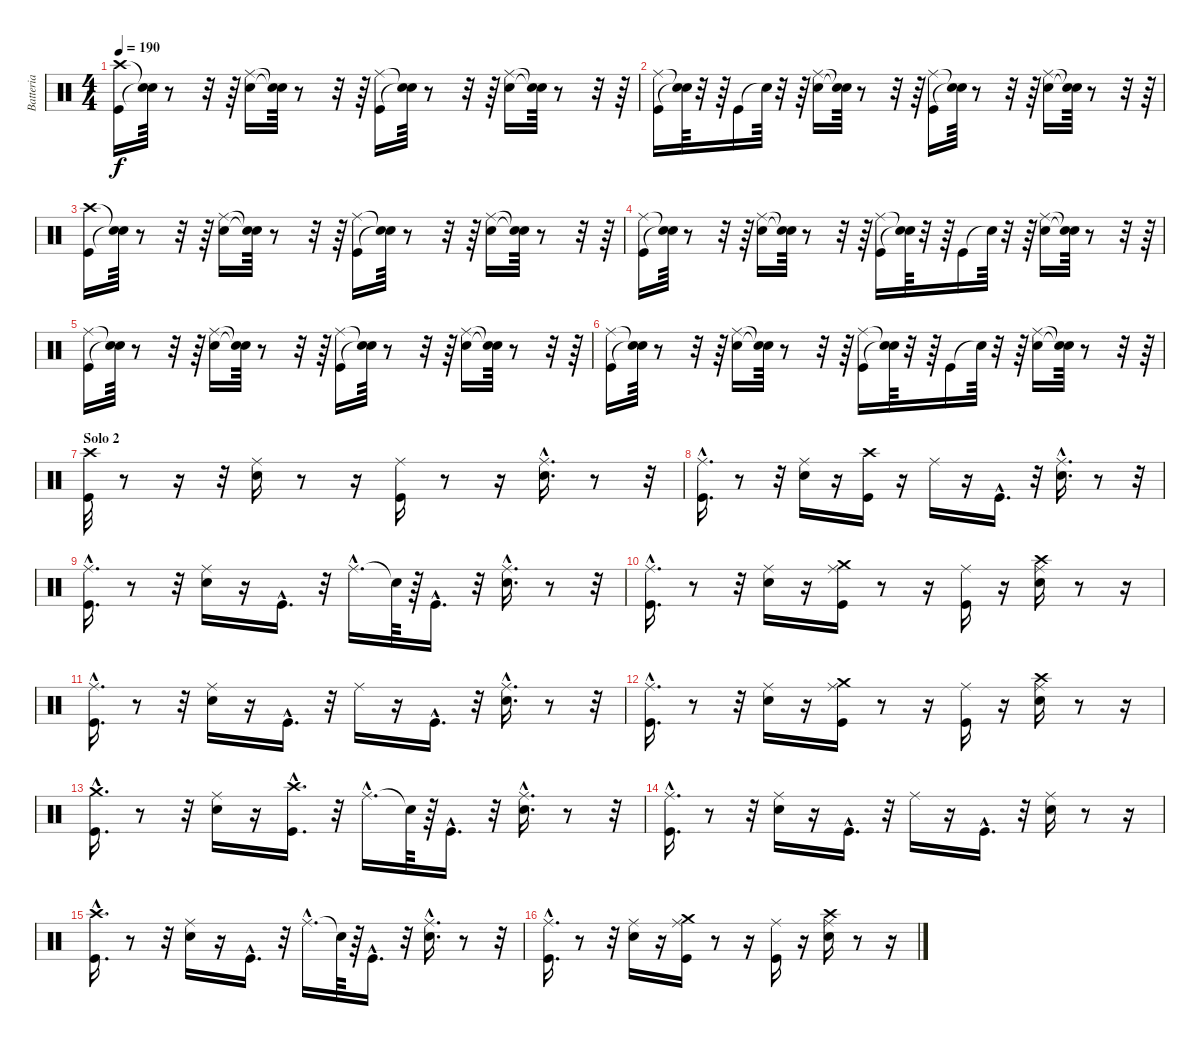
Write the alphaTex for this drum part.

\track ("Batteria" "Batteria") {instrument percussion}
\staff {score}
\articulation defaults
\ts (4 4)
\tempo 190
\clef neutral
\ks c
("Kick (hit)" "Crash high (hit)").16{dy f} ("Snare (hit)"{t} "Snare (hit)"{t}).64 r.8 r.32 r.64 ("Ride (middle)" "Snare (hit) 2").16 ("Snare (hit)"{t} "Snare (hit)"{t}).64 r.8 r.32 r.64 ("Ride (middle)" "Kick (hit)").16 ("Snare (hit)"{t} "Snare (hit)"{t}).64 r.8 r.32 r.64 ("Ride (middle)" "Snare (hit) 2").16 ("Snare (hit)"{t} "Snare (hit)"{t}).64 r.8 r.32 r.64 |
("Ride (middle)" "Kick (hit)").16 ("Snare (hit)"{t} "Snare (hit)"{t}).64 r.32 r.64 "Kick (hit)".16 "Snare (hit)"{t}.64 r.32 r.64 ("Snare (hit) 2" "Ride (middle)").16 ("Snare (hit)"{t} "Snare (hit)"{t}).64 r.8 r.32 r.64 ("Kick (hit)" "Ride (middle)").16 ("Snare (hit)"{t} "Snare (hit)"{t}).64 r.8 r.32 r.64 ("Snare (hit) 2" "Ride (middle)").16 ("Snare (hit)"{t} "Snare (hit)"{t}).64 r.8 r.32 r.64 |
("Crash high (hit)" "Kick (hit)").16 ("Snare (hit)"{t} "Snare (hit)"{t}).64 r.8 r.32 r.64 ("Ride (middle)" "Snare (hit) 2").16 ("Snare (hit)"{t} "Snare (hit)"{t}).64 r.8 r.32 r.64 ("Ride (middle)" "Kick (hit)").16 ("Snare (hit)"{t} "Snare (hit)"{t}).64 r.8 r.32 r.64 ("Ride (middle)" "Snare (hit) 2").16 ("Snare (hit)"{t} "Snare (hit)"{t}).64 r.8 r.32 r.64 |
("Kick (hit)" "Ride (middle)").16 ("Snare (hit)"{t} "Snare (hit)"{t}).64 r.8 r.32 r.64 ("Snare (hit) 2" "Ride (middle)").16 ("Snare (hit)"{t} "Snare (hit)"{t}).64 r.8 r.32 r.64 ("Kick (hit)" "Ride (middle)").16 ("Snare (hit)"{t} "Snare (hit)"{t}).64 r.32 r.64 "Kick (hit)".16 "Snare (hit)"{t}.64 r.32 r.64 ("Snare (hit) 2" "Ride (middle)").16 ("Snare (hit)"{t} "Snare (hit)"{t}).64 r.8 r.32 r.64 |
("Kick (hit)" "Ride (middle)").16 ("Snare (hit)"{t} "Snare (hit)"{t}).64 r.8 r.32 r.64 ("Ride (middle)" "Snare (hit) 2").16 ("Snare (hit)"{t} "Snare (hit)"{t}).64 r.8 r.32 r.64 ("Ride (middle)" "Kick (hit)").16 ("Snare (hit)"{t} "Snare (hit)"{t}).64 r.8 r.32 r.64 ("Ride (middle)" "Snare (hit) 2").16 ("Snare (hit)"{t} "Snare (hit)"{t}).64 r.8 r.32 r.64 |
("Kick (hit)" "Ride (middle)").16 ("Snare (hit)"{t} "Snare (hit)"{t}).64 r.8 r.32 r.64 ("Snare (hit) 2" "Ride (middle)").16 ("Snare (hit)"{t} "Snare (hit)"{t}).64 r.8 r.32 r.64 ("Kick (hit)" "Ride (middle)").16 ("Snare (hit)"{t} "Snare (hit)"{t}).64 r.32 r.64 "Kick (hit)".16 "Snare (hit)"{t}.64 r.32 r.64 ("Snare (hit) 2" "Ride (middle)").16 ("Snare (hit)"{t} "Snare (hit)"{t}).64 r.8 r.32 r.64 |
\section ("" "Solo 2")
("Crash high (hit)" "Kick (hit)").32{volume 11} r.8 r.16 r.32 ("Snare (hit) 2" "Ride (middle)").16 r.8 r.16 ("Ride (middle)" "Kick (hit)").16 r.8 r.16 ("Ride (middle)"{hac} "Snare (hit) 2"{hac}).16{d} r.8 r.32 |
("Kick (hit)"{hac} "Ride (middle)"{hac}).16{d} r.8 r.32 ("Snare (hit) 2" "Ride (middle)").16 r.16 ("Crash high (hit)" "Kick (hit)").16 r.16 "Ride (middle)".16 r.16 "Kick (hit)"{hac}.16{d} r.32 ("Snare (hit) 2"{hac} "Ride (middle)"{hac}).16{d} r.8 r.32 |
("Kick (hit)"{hac} "Ride (middle)"{hac}).16{d} r.8 r.32 ("Snare (hit) 2" "Ride (middle)").16 r.16 "Kick (hit)"{hac}.16{d} r.32 "Ride (middle)"{hac}.16{d} "Snare (hit)"{t}.64 r.64 "Kick (hit)"{hac}.16{d} r.32 ("Snare (hit) 2"{hac} "Ride (middle)"{hac}).16{d} r.8 r.32 |
("Kick (hit)"{hac} "Ride (middle)"{hac}).16{d} r.8 r.32 ("Snare (hit) 2" "Ride (middle)").16 r.16 ("Ride (middle)" "Crash medium (hit)" "Kick (hit)").16 r.8 r.16 ("Kick (hit)" "Ride (middle)").16 r.16 ("Ride (middle)" "Crash high (hit)" "Snare (hit) 2").16 r.8 r.16 |
("Kick (hit)"{hac} "Ride (middle)"{hac}).16{d} r.8 r.32 ("Ride (middle)" "Snare (hit) 2").16 r.16 "Kick (hit)"{hac}.16{d} r.32 "Ride (middle)".16 r.16 "Kick (hit)"{hac}.16{d} r.32 ("Snare (hit) 2"{hac} "Ride (middle)"{hac}).16{d} r.8 r.32 |
("Kick (hit)"{hac} "Ride (middle)"{hac}).16{d} r.8 r.32 ("Snare (hit) 2" "Ride (middle)").16 r.16 ("Ride (middle)" "Kick (hit)" "Crash medium (hit)").16 r.8 r.16 ("Kick (hit)" "Ride (middle)").16 r.16 ("Ride (middle)" "Snare (hit) 2" "Crash high (hit)").16 r.8 r.16 |
("Crash medium (hit)"{hac} "Kick (hit)"{hac}).16{d} r.8 r.32 ("Snare (hit) 2" "Ride (middle)").16 r.16 ("Kick (hit)"{hac} "Crash high (hit)"{hac}).16{d} r.32 "Ride (middle)"{hac}.16{d} "Snare (hit)"{t}.64 r.64 "Kick (hit)"{hac}.16{d} r.32 ("Snare (hit) 2"{hac} "Ride (middle)"{hac}).16{d} r.8 r.32 |
("Kick (hit)"{hac} "Ride (middle)"{hac}).16{d} r.8 r.32 ("Snare (hit) 2" "Ride (middle)").16 r.16 "Kick (hit)"{hac}.16{d} r.32 "Ride (middle)".16 r.16 "Kick (hit)"{hac}.16{d} r.32 ("Ride (middle)" "Snare (hit) 2").16 r.8 r.16 |
("Crash high (hit)"{hac} "Kick (hit)"{hac}).16{d} r.8 r.32 ("Ride (middle)" "Snare (hit) 2").16 r.16 "Kick (hit)"{hac}.16{d} r.32 "Ride (middle)"{hac}.16{d} "Snare (hit)"{t}.64 r.64 "Kick (hit)"{hac}.16{d} r.32 ("Snare (hit) 2"{hac} "Ride (middle)"{hac}).16{d} r.8 r.32 |
("Kick (hit)"{hac} "Ride (middle)"{hac}).16{d} r.8 r.32 ("Ride (middle)" "Snare (hit) 2").16 r.16 ("Ride (middle)" "Crash medium (hit)" "Kick (hit)").16 r.8 r.16 ("Kick (hit)" "Ride (middle)").16 r.16 ("Ride (middle)" "Crash high (hit)" "Snare (hit) 2").16 r.8 r.16
